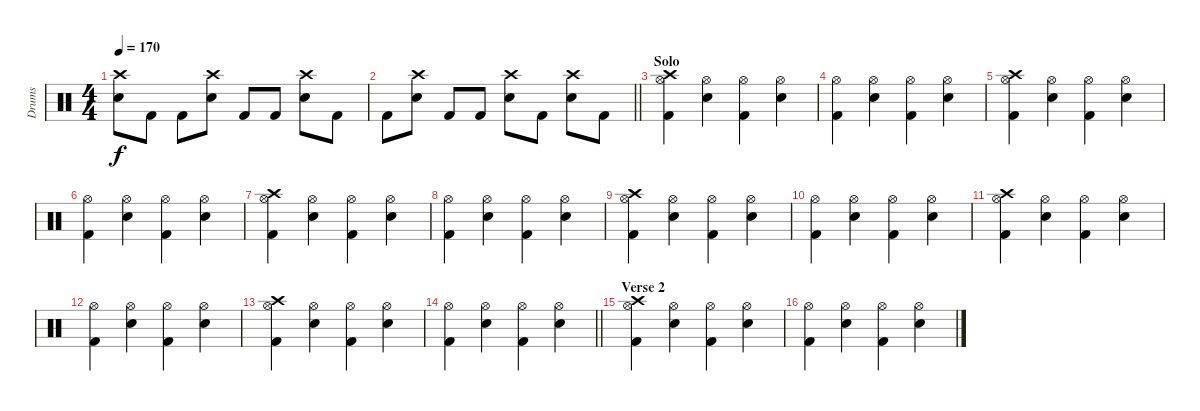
\track ("Drums" "Drums") {instrument percussion}
\staff {score}
\articulation defaults
\ts (4 4)
\tempo 170
\clef neutral
\ks c
("Crash high (hit)" "Electric Snare (hit)").8{dy f} "Kick (hit) 2".8 "Kick (hit) 2".8 ("Crash high (hit)" "Electric Snare (hit)").8 "Kick (hit) 2".8 "Kick (hit) 2".8 ("Crash high (hit)" "Electric Snare (hit)").8 "Kick (hit) 2".8 |
\barLineRight lightlight "Kick (hit) 2".8
("Crash high (hit)" "Electric Snare (hit)").8 "Kick (hit) 2".8 "Kick (hit) 2".8 ("Crash high (hit)" "Electric Snare (hit)").8 "Kick (hit) 2".8 ("Crash high (hit)" "Electric Snare (hit)").8 "Kick (hit) 2".8 |
\section ("" "Solo")
("Crash high (hit)" "Hi-Hat (open)" "Kick (hit) 2").4 ("Hi-Hat (open)" "Electric Snare (hit)").4 ("Hi-Hat (open)" "Kick (hit) 2").4 ("Hi-Hat (open)" "Electric Snare (hit)").4 |
("Hi-Hat (open)" "Kick (hit) 2").4 ("Hi-Hat (open)" "Electric Snare (hit)").4 ("Hi-Hat (open)" "Kick (hit) 2").4 ("Hi-Hat (open)" "Electric Snare (hit)").4 |
("Crash high (hit)" "Hi-Hat (open)" "Kick (hit) 2").4 ("Hi-Hat (open)" "Electric Snare (hit)").4 ("Hi-Hat (open)" "Kick (hit) 2").4 ("Hi-Hat (open)" "Electric Snare (hit)").4 |
("Hi-Hat (open)" "Kick (hit) 2").4 ("Hi-Hat (open)" "Electric Snare (hit)").4 ("Hi-Hat (open)" "Kick (hit) 2").4 ("Hi-Hat (open)" "Electric Snare (hit)").4 |
("Crash high (hit)" "Hi-Hat (open)" "Kick (hit) 2").4 ("Hi-Hat (open)" "Electric Snare (hit)").4 ("Hi-Hat (open)" "Kick (hit) 2").4 ("Hi-Hat (open)" "Electric Snare (hit)").4 |
("Hi-Hat (open)" "Kick (hit) 2").4 ("Hi-Hat (open)" "Electric Snare (hit)").4 ("Hi-Hat (open)" "Kick (hit) 2").4 ("Hi-Hat (open)" "Electric Snare (hit)").4 |
("Crash high (hit)" "Hi-Hat (open)" "Kick (hit) 2").4 ("Hi-Hat (open)" "Electric Snare (hit)").4 ("Hi-Hat (open)" "Kick (hit) 2").4 ("Hi-Hat (open)" "Electric Snare (hit)").4 |
("Hi-Hat (open)" "Kick (hit) 2").4 ("Hi-Hat (open)" "Electric Snare (hit)").4 ("Hi-Hat (open)" "Kick (hit) 2").4 ("Hi-Hat (open)" "Electric Snare (hit)").4 |
("Crash high (hit)" "Hi-Hat (open)" "Kick (hit) 2").4 ("Hi-Hat (open)" "Electric Snare (hit)").4 ("Hi-Hat (open)" "Kick (hit) 2").4 ("Hi-Hat (open)" "Electric Snare (hit)").4 |
("Hi-Hat (open)" "Kick (hit) 2").4 ("Hi-Hat (open)" "Electric Snare (hit)").4 ("Hi-Hat (open)" "Kick (hit) 2").4 ("Hi-Hat (open)" "Electric Snare (hit)").4 |
("Crash high (hit)" "Hi-Hat (open)" "Kick (hit) 2").4 ("Hi-Hat (open)" "Electric Snare (hit)").4 ("Hi-Hat (open)" "Kick (hit) 2").4 ("Hi-Hat (open)" "Electric Snare (hit)").4 |
\barLineRight lightlight
("Hi-Hat (open)" "Kick (hit) 2").4 ("Hi-Hat (open)" "Electric Snare (hit)").4 ("Hi-Hat (open)" "Kick (hit) 2").4 ("Hi-Hat (open)" "Electric Snare (hit)").4 |
\section ("" "Verse 2")
("Crash high (hit)" "Hi-Hat (open)" "Kick (hit) 2").4 ("Hi-Hat (open)" "Electric Snare (hit)").4 ("Hi-Hat (open)" "Kick (hit) 2").4 ("Hi-Hat (open)" "Electric Snare (hit)").4 |
("Hi-Hat (open)" "Kick (hit) 2").4 ("Hi-Hat (open)" "Electric Snare (hit)").4 ("Hi-Hat (open)" "Kick (hit) 2").4 ("Hi-Hat (open)" "Electric Snare (hit)").4
